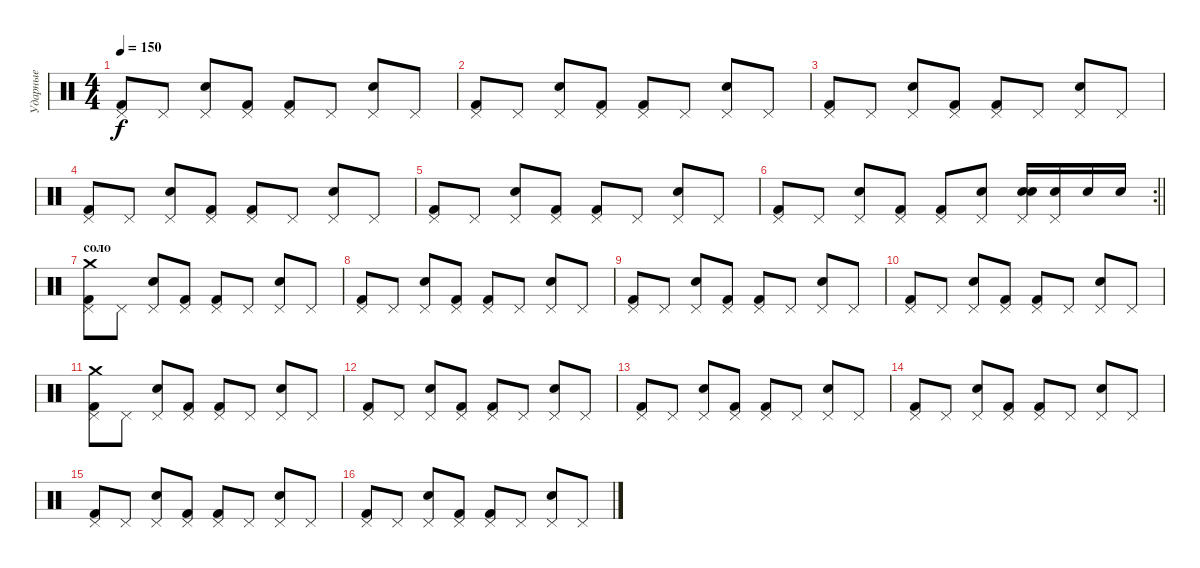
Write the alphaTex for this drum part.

\track ("Ударные" "Ударные") {instrument percussion}
\staff {score}
\articulation defaults
\ts (4 4)
\tempo 150
\clef neutral
\ks c
("Pedal Hi-Hat (hit)" "Kick (hit) 2").8{dy f} "Pedal Hi-Hat (hit)".8 ("Pedal Hi-Hat (hit)" "Electric Snare (hit)").8 ("Pedal Hi-Hat (hit)" "Kick (hit) 2").8 ("Pedal Hi-Hat (hit)" "Kick (hit) 2").8 "Pedal Hi-Hat (hit)".8 ("Pedal Hi-Hat (hit)" "Electric Snare (hit)").8 "Pedal Hi-Hat (hit)".8 |
("Pedal Hi-Hat (hit)" "Kick (hit) 2").8 "Pedal Hi-Hat (hit)".8 ("Pedal Hi-Hat (hit)" "Electric Snare (hit)").8 ("Pedal Hi-Hat (hit)" "Kick (hit) 2").8 ("Pedal Hi-Hat (hit)" "Kick (hit) 2").8 "Pedal Hi-Hat (hit)".8 ("Pedal Hi-Hat (hit)" "Electric Snare (hit)").8 "Pedal Hi-Hat (hit)".8 |
("Pedal Hi-Hat (hit)" "Kick (hit) 2").8 "Pedal Hi-Hat (hit)".8 ("Pedal Hi-Hat (hit)" "Electric Snare (hit)").8 ("Pedal Hi-Hat (hit)" "Kick (hit) 2").8 ("Pedal Hi-Hat (hit)" "Kick (hit) 2").8 "Pedal Hi-Hat (hit)".8 ("Pedal Hi-Hat (hit)" "Electric Snare (hit)").8 "Pedal Hi-Hat (hit)".8 |
("Pedal Hi-Hat (hit)" "Kick (hit) 2").8 "Pedal Hi-Hat (hit)".8 ("Pedal Hi-Hat (hit)" "Electric Snare (hit)").8 ("Pedal Hi-Hat (hit)" "Kick (hit) 2").8 ("Pedal Hi-Hat (hit)" "Kick (hit) 2").8 "Pedal Hi-Hat (hit)".8 ("Pedal Hi-Hat (hit)" "Electric Snare (hit)").8 "Pedal Hi-Hat (hit)".8 |
("Pedal Hi-Hat (hit)" "Kick (hit) 2").8 "Pedal Hi-Hat (hit)".8 ("Pedal Hi-Hat (hit)" "Electric Snare (hit)").8 ("Pedal Hi-Hat (hit)" "Kick (hit) 2").8 ("Pedal Hi-Hat (hit)" "Kick (hit) 2").8 "Pedal Hi-Hat (hit)".8 ("Pedal Hi-Hat (hit)" "Electric Snare (hit)").8 "Pedal Hi-Hat (hit)".8 |
\rc 2
\barLineRight lightlight
("Pedal Hi-Hat (hit)" "Kick (hit) 2").8 "Pedal Hi-Hat (hit)".8 ("Pedal Hi-Hat (hit)" "Electric Snare (hit)").8 ("Pedal Hi-Hat (hit)" "Kick (hit) 2").8 ("Pedal Hi-Hat (hit)" "Kick (hit) 2").8 ("Pedal Hi-Hat (hit)" "Electric Snare (hit)").8 ("Electric Snare (hit)" "Pedal Hi-Hat (hit)" "Electric Snare (hit)").16 ("Electric Snare (hit)" "Pedal Hi-Hat (hit)").16 "Electric Snare (hit)".16 "Electric Snare (hit)".16 |
\section ("" "соло")
("Crash medium (hit)" "Pedal Hi-Hat (hit)" "Kick (hit) 2").8 "Pedal Hi-Hat (hit)".8 ("Pedal Hi-Hat (hit)" "Electric Snare (hit)").8 ("Pedal Hi-Hat (hit)" "Kick (hit) 2").8 ("Pedal Hi-Hat (hit)" "Kick (hit) 2").8 "Pedal Hi-Hat (hit)".8 ("Pedal Hi-Hat (hit)" "Electric Snare (hit)").8 "Pedal Hi-Hat (hit)".8 |
("Pedal Hi-Hat (hit)" "Kick (hit) 2").8 "Pedal Hi-Hat (hit)".8 ("Pedal Hi-Hat (hit)" "Electric Snare (hit)").8 ("Pedal Hi-Hat (hit)" "Kick (hit) 2").8 ("Pedal Hi-Hat (hit)" "Kick (hit) 2").8 "Pedal Hi-Hat (hit)".8 ("Pedal Hi-Hat (hit)" "Electric Snare (hit)").8 "Pedal Hi-Hat (hit)".8 |
("Pedal Hi-Hat (hit)" "Kick (hit) 2").8 "Pedal Hi-Hat (hit)".8 ("Pedal Hi-Hat (hit)" "Electric Snare (hit)").8 ("Pedal Hi-Hat (hit)" "Kick (hit) 2").8 ("Pedal Hi-Hat (hit)" "Kick (hit) 2").8 "Pedal Hi-Hat (hit)".8 ("Pedal Hi-Hat (hit)" "Electric Snare (hit)").8 "Pedal Hi-Hat (hit)".8 |
("Pedal Hi-Hat (hit)" "Kick (hit) 2").8 "Pedal Hi-Hat (hit)".8 ("Pedal Hi-Hat (hit)" "Electric Snare (hit)").8 ("Pedal Hi-Hat (hit)" "Kick (hit) 2").8 ("Pedal Hi-Hat (hit)" "Kick (hit) 2").8 "Pedal Hi-Hat (hit)".8 ("Pedal Hi-Hat (hit)" "Electric Snare (hit)").8 "Pedal Hi-Hat (hit)".8 |
("Crash medium (hit)" "Pedal Hi-Hat (hit)" "Kick (hit) 2").8 "Pedal Hi-Hat (hit)".8 ("Pedal Hi-Hat (hit)" "Electric Snare (hit)").8 ("Pedal Hi-Hat (hit)" "Kick (hit) 2").8 ("Pedal Hi-Hat (hit)" "Kick (hit) 2").8 "Pedal Hi-Hat (hit)".8 ("Pedal Hi-Hat (hit)" "Electric Snare (hit)").8 "Pedal Hi-Hat (hit)".8 |
("Pedal Hi-Hat (hit)" "Kick (hit) 2").8 "Pedal Hi-Hat (hit)".8 ("Pedal Hi-Hat (hit)" "Electric Snare (hit)").8 ("Pedal Hi-Hat (hit)" "Kick (hit) 2").8 ("Pedal Hi-Hat (hit)" "Kick (hit) 2").8 "Pedal Hi-Hat (hit)".8 ("Pedal Hi-Hat (hit)" "Electric Snare (hit)").8 "Pedal Hi-Hat (hit)".8 |
("Pedal Hi-Hat (hit)" "Kick (hit) 2").8 "Pedal Hi-Hat (hit)".8 ("Pedal Hi-Hat (hit)" "Electric Snare (hit)").8 ("Pedal Hi-Hat (hit)" "Kick (hit) 2").8 ("Pedal Hi-Hat (hit)" "Kick (hit) 2").8 "Pedal Hi-Hat (hit)".8 ("Pedal Hi-Hat (hit)" "Electric Snare (hit)").8 "Pedal Hi-Hat (hit)".8 |
("Pedal Hi-Hat (hit)" "Kick (hit) 2").8 "Pedal Hi-Hat (hit)".8 ("Pedal Hi-Hat (hit)" "Electric Snare (hit)").8 ("Pedal Hi-Hat (hit)" "Kick (hit) 2").8 ("Pedal Hi-Hat (hit)" "Kick (hit) 2").8 "Pedal Hi-Hat (hit)".8 ("Pedal Hi-Hat (hit)" "Electric Snare (hit)").8 "Pedal Hi-Hat (hit)".8 |
("Pedal Hi-Hat (hit)" "Kick (hit) 2").8 "Pedal Hi-Hat (hit)".8 ("Pedal Hi-Hat (hit)" "Electric Snare (hit)").8 ("Pedal Hi-Hat (hit)" "Kick (hit) 2").8 ("Pedal Hi-Hat (hit)" "Kick (hit) 2").8 "Pedal Hi-Hat (hit)".8 ("Pedal Hi-Hat (hit)" "Electric Snare (hit)").8 "Pedal Hi-Hat (hit)".8 |
("Pedal Hi-Hat (hit)" "Kick (hit) 2").8 "Pedal Hi-Hat (hit)".8 ("Pedal Hi-Hat (hit)" "Electric Snare (hit)").8 ("Pedal Hi-Hat (hit)" "Kick (hit) 2").8 ("Pedal Hi-Hat (hit)" "Kick (hit) 2").8 "Pedal Hi-Hat (hit)".8 ("Pedal Hi-Hat (hit)" "Electric Snare (hit)").8 "Pedal Hi-Hat (hit)".8
